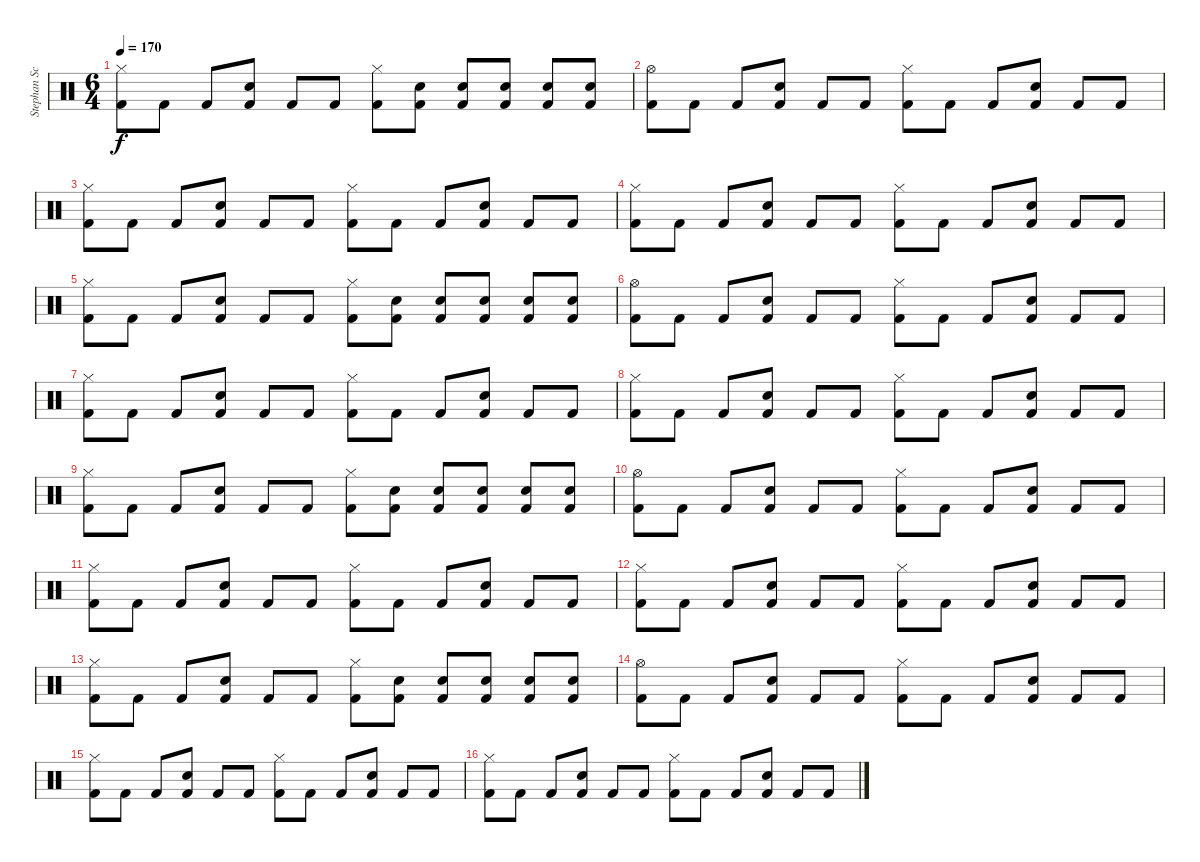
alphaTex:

\track ("Stephan Schwartzmann" "Stephan Sc") {instrument percussion}
\staff {score}
\articulation defaults
\ts (6 4)
\tempo 170
\clef neutral
\ks c
("Hi-Hat (closed)" "Kick (hit) 2").8{dy f} "Kick (hit) 2".8 "Kick (hit) 2".8 ("Snare (hit) 2" "Kick (hit) 2").8 "Kick (hit) 2".8 "Kick (hit) 2".8 ("Hi-Hat (closed)" "Kick (hit) 2").8 ("Snare (hit) 2" "Kick (hit) 2").8 ("Snare (hit) 2" "Kick (hit) 2").8 ("Snare (hit) 2" "Kick (hit) 2").8 ("Snare (hit) 2" "Kick (hit) 2").8 ("Snare (hit) 2" "Kick (hit) 2").8 |
("Hi-Hat (open)" "Kick (hit) 2").8 "Kick (hit) 2".8 "Kick (hit) 2".8 ("Snare (hit) 2" "Kick (hit) 2").8 "Kick (hit) 2".8 "Kick (hit) 2".8 ("Hi-Hat (closed)" "Kick (hit) 2").8 "Kick (hit) 2".8 "Kick (hit) 2".8 ("Snare (hit) 2" "Kick (hit) 2").8 "Kick (hit) 2".8 "Kick (hit) 2".8 |
("Hi-Hat (closed)" "Kick (hit) 2").8 "Kick (hit) 2".8 "Kick (hit) 2".8 ("Snare (hit) 2" "Kick (hit) 2").8 "Kick (hit) 2".8 "Kick (hit) 2".8 ("Hi-Hat (closed)" "Kick (hit) 2").8 "Kick (hit) 2".8 "Kick (hit) 2".8 ("Snare (hit) 2" "Kick (hit) 2").8 "Kick (hit) 2".8 "Kick (hit) 2".8 |
("Hi-Hat (closed)" "Kick (hit) 2").8 "Kick (hit) 2".8 "Kick (hit) 2".8 ("Snare (hit) 2" "Kick (hit) 2").8 "Kick (hit) 2".8 "Kick (hit) 2".8 ("Hi-Hat (closed)" "Kick (hit) 2").8 "Kick (hit) 2".8 "Kick (hit) 2".8 ("Snare (hit) 2" "Kick (hit) 2").8 "Kick (hit) 2".8 "Kick (hit) 2".8 |
("Hi-Hat (closed)" "Kick (hit) 2").8 "Kick (hit) 2".8 "Kick (hit) 2".8 ("Snare (hit) 2" "Kick (hit) 2").8 "Kick (hit) 2".8 "Kick (hit) 2".8 ("Hi-Hat (closed)" "Kick (hit) 2").8 ("Snare (hit) 2" "Kick (hit) 2").8 ("Snare (hit) 2" "Kick (hit) 2").8 ("Snare (hit) 2" "Kick (hit) 2").8 ("Snare (hit) 2" "Kick (hit) 2").8 ("Snare (hit) 2" "Kick (hit) 2").8 |
("Hi-Hat (open)" "Kick (hit) 2").8 "Kick (hit) 2".8 "Kick (hit) 2".8 ("Snare (hit) 2" "Kick (hit) 2").8 "Kick (hit) 2".8 "Kick (hit) 2".8 ("Hi-Hat (closed)" "Kick (hit) 2").8 "Kick (hit) 2".8 "Kick (hit) 2".8 ("Snare (hit) 2" "Kick (hit) 2").8 "Kick (hit) 2".8 "Kick (hit) 2".8 |
("Hi-Hat (closed)" "Kick (hit) 2").8 "Kick (hit) 2".8 "Kick (hit) 2".8 ("Snare (hit) 2" "Kick (hit) 2").8 "Kick (hit) 2".8 "Kick (hit) 2".8 ("Hi-Hat (closed)" "Kick (hit) 2").8 "Kick (hit) 2".8 "Kick (hit) 2".8 ("Snare (hit) 2" "Kick (hit) 2").8 "Kick (hit) 2".8 "Kick (hit) 2".8 |
("Hi-Hat (closed)" "Kick (hit) 2").8 "Kick (hit) 2".8 "Kick (hit) 2".8 ("Snare (hit) 2" "Kick (hit) 2").8 "Kick (hit) 2".8 "Kick (hit) 2".8 ("Hi-Hat (closed)" "Kick (hit) 2").8 "Kick (hit) 2".8 "Kick (hit) 2".8 ("Snare (hit) 2" "Kick (hit) 2").8 "Kick (hit) 2".8 "Kick (hit) 2".8 |
("Hi-Hat (closed)" "Kick (hit) 2").8 "Kick (hit) 2".8 "Kick (hit) 2".8 ("Snare (hit) 2" "Kick (hit) 2").8 "Kick (hit) 2".8 "Kick (hit) 2".8 ("Hi-Hat (closed)" "Kick (hit) 2").8 ("Snare (hit) 2" "Kick (hit) 2").8 ("Snare (hit) 2" "Kick (hit) 2").8 ("Snare (hit) 2" "Kick (hit) 2").8 ("Snare (hit) 2" "Kick (hit) 2").8 ("Snare (hit) 2" "Kick (hit) 2").8 |
("Hi-Hat (open)" "Kick (hit) 2").8 "Kick (hit) 2".8 "Kick (hit) 2".8 ("Snare (hit) 2" "Kick (hit) 2").8 "Kick (hit) 2".8 "Kick (hit) 2".8 ("Hi-Hat (closed)" "Kick (hit) 2").8 "Kick (hit) 2".8 "Kick (hit) 2".8 ("Snare (hit) 2" "Kick (hit) 2").8 "Kick (hit) 2".8 "Kick (hit) 2".8 |
("Hi-Hat (closed)" "Kick (hit) 2").8 "Kick (hit) 2".8 "Kick (hit) 2".8 ("Snare (hit) 2" "Kick (hit) 2").8 "Kick (hit) 2".8 "Kick (hit) 2".8 ("Hi-Hat (closed)" "Kick (hit) 2").8 "Kick (hit) 2".8 "Kick (hit) 2".8 ("Snare (hit) 2" "Kick (hit) 2").8 "Kick (hit) 2".8 "Kick (hit) 2".8 |
("Hi-Hat (closed)" "Kick (hit) 2").8 "Kick (hit) 2".8 "Kick (hit) 2".8 ("Snare (hit) 2" "Kick (hit) 2").8 "Kick (hit) 2".8 "Kick (hit) 2".8 ("Hi-Hat (closed)" "Kick (hit) 2").8 "Kick (hit) 2".8 "Kick (hit) 2".8 ("Snare (hit) 2" "Kick (hit) 2").8 "Kick (hit) 2".8 "Kick (hit) 2".8 |
("Hi-Hat (closed)" "Kick (hit) 2").8 "Kick (hit) 2".8 "Kick (hit) 2".8 ("Snare (hit) 2" "Kick (hit) 2").8 "Kick (hit) 2".8 "Kick (hit) 2".8 ("Hi-Hat (closed)" "Kick (hit) 2").8 ("Snare (hit) 2" "Kick (hit) 2").8 ("Snare (hit) 2" "Kick (hit) 2").8 ("Snare (hit) 2" "Kick (hit) 2").8 ("Snare (hit) 2" "Kick (hit) 2").8 ("Snare (hit) 2" "Kick (hit) 2").8 |
("Hi-Hat (open)" "Kick (hit) 2").8 "Kick (hit) 2".8 "Kick (hit) 2".8 ("Snare (hit) 2" "Kick (hit) 2").8 "Kick (hit) 2".8 "Kick (hit) 2".8 ("Hi-Hat (closed)" "Kick (hit) 2").8 "Kick (hit) 2".8 "Kick (hit) 2".8 ("Snare (hit) 2" "Kick (hit) 2").8 "Kick (hit) 2".8 "Kick (hit) 2".8 |
("Hi-Hat (closed)" "Kick (hit) 2").8 "Kick (hit) 2".8 "Kick (hit) 2".8 ("Snare (hit) 2" "Kick (hit) 2").8 "Kick (hit) 2".8 "Kick (hit) 2".8 ("Hi-Hat (closed)" "Kick (hit) 2").8 "Kick (hit) 2".8 "Kick (hit) 2".8 ("Snare (hit) 2" "Kick (hit) 2").8 "Kick (hit) 2".8 "Kick (hit) 2".8 |
("Hi-Hat (closed)" "Kick (hit) 2").8 "Kick (hit) 2".8 "Kick (hit) 2".8 ("Snare (hit) 2" "Kick (hit) 2").8 "Kick (hit) 2".8 "Kick (hit) 2".8 ("Hi-Hat (closed)" "Kick (hit) 2").8 "Kick (hit) 2".8 "Kick (hit) 2".8 ("Snare (hit) 2" "Kick (hit) 2").8 "Kick (hit) 2".8 "Kick (hit) 2".8
